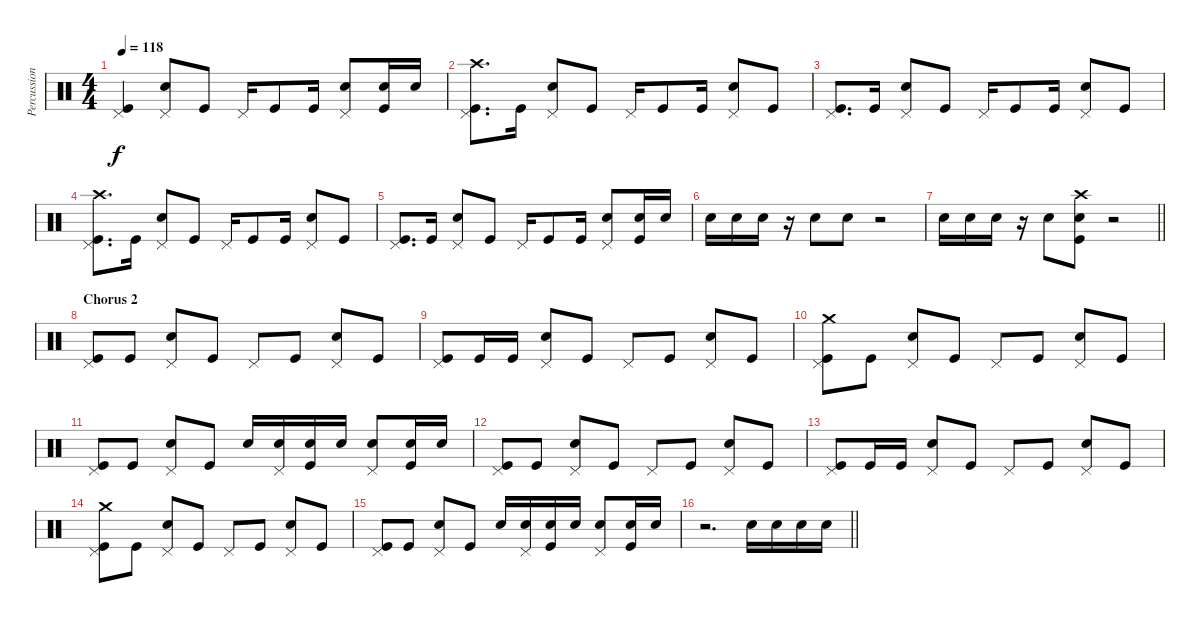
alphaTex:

\track ("Percussion" "Percussion") {instrument percussion}
\staff {score}
\articulation defaults
\ts (4 4)
\tempo 118
\clef neutral
\ks c
("Pedal Hi-Hat (hit)" "Kick (hit)").4{dy f} ("Pedal Hi-Hat (hit)" "Electric Snare (hit)").8 "Kick (hit)".8 "Pedal Hi-Hat (hit)".16 "Kick (hit)".8 "Kick (hit)".16 ("Pedal Hi-Hat (hit)" "Electric Snare (hit)").8 ("Electric Snare (hit)" "Kick (hit)").16 "Electric Snare (hit)".16 |
("Crash high (hit)" "Pedal Hi-Hat (hit)" "Kick (hit)").8{d} "Kick (hit)".16 ("Pedal Hi-Hat (hit)" "Electric Snare (hit)").8 "Kick (hit)".8 "Pedal Hi-Hat (hit)".16 "Kick (hit)".8 "Kick (hit)".16 ("Pedal Hi-Hat (hit)" "Electric Snare (hit)").8 "Kick (hit)".8 |
("Pedal Hi-Hat (hit)" "Kick (hit)").8{d} "Kick (hit)".16 ("Pedal Hi-Hat (hit)" "Electric Snare (hit)").8 "Kick (hit)".8 "Pedal Hi-Hat (hit)".16 "Kick (hit)".8 "Kick (hit)".16 ("Pedal Hi-Hat (hit)" "Electric Snare (hit)").8 "Kick (hit)".8 |
("Crash high (hit)" "Pedal Hi-Hat (hit)" "Kick (hit)").8{d} "Kick (hit)".16 ("Pedal Hi-Hat (hit)" "Electric Snare (hit)").8 "Kick (hit)".8 "Pedal Hi-Hat (hit)".16 "Kick (hit)".8 "Kick (hit)".16 ("Pedal Hi-Hat (hit)" "Electric Snare (hit)").8 "Kick (hit)".8 |
("Pedal Hi-Hat (hit)" "Kick (hit)").8{d} "Kick (hit)".16 ("Pedal Hi-Hat (hit)" "Electric Snare (hit)").8 "Kick (hit)".8 "Pedal Hi-Hat (hit)".16 "Kick (hit)".8 "Kick (hit)".16 ("Pedal Hi-Hat (hit)" "Electric Snare (hit)").8 ("Electric Snare (hit)" "Kick (hit)").16 "Electric Snare (hit)".16 |
"Electric Snare (hit)".16 "Electric Snare (hit)".16 "Electric Snare (hit)".16 r.16 "Electric Snare (hit)".8 "Electric Snare (hit)".8 r.2 |
\barLineRight lightlight "Electric Snare (hit)".16 "Electric Snare (hit)".16 "Electric Snare (hit)".16
r.16 "Electric Snare (hit)".8 ("Kick (hit)" "Crash high (hit)" "Electric Snare (hit)").8 r.2 |
\section ("" "Chorus 2")
("Pedal Hi-Hat (hit)" "Kick (hit)").8 "Kick (hit)".8 ("Pedal Hi-Hat (hit)" "Electric Snare (hit)").8 "Kick (hit)".8 "Pedal Hi-Hat (hit)".8 "Kick (hit)".8 ("Pedal Hi-Hat (hit)" "Electric Snare (hit)").8 "Kick (hit)".8 |
("Pedal Hi-Hat (hit)" "Kick (hit)").8 "Kick (hit)".16 "Kick (hit)".16 ("Pedal Hi-Hat (hit)" "Electric Snare (hit)").8 "Kick (hit)".8 "Pedal Hi-Hat (hit)".8 "Kick (hit)".8 ("Pedal Hi-Hat (hit)" "Electric Snare (hit)").8 "Kick (hit)".8 |
("Crash medium (hit)" "Pedal Hi-Hat (hit)" "Kick (hit)").8 "Kick (hit)".8 ("Pedal Hi-Hat (hit)" "Electric Snare (hit)").8 "Kick (hit)".8 "Pedal Hi-Hat (hit)".8 "Kick (hit)".8 ("Pedal Hi-Hat (hit)" "Electric Snare (hit)").8 "Kick (hit)".8 |
("Pedal Hi-Hat (hit)" "Kick (hit)").8 "Kick (hit)".8 ("Pedal Hi-Hat (hit)" "Electric Snare (hit)").8 "Kick (hit)".8 "Electric Snare (hit)".16 ("Pedal Hi-Hat (hit)" "Electric Snare (hit)").16 ("Electric Snare (hit)" "Kick (hit)").16 "Electric Snare (hit)".16 ("Pedal Hi-Hat (hit)" "Electric Snare (hit)").8 ("Electric Snare (hit)" "Kick (hit)").16 "Electric Snare (hit)".16 |
("Pedal Hi-Hat (hit)" "Kick (hit)").8 "Kick (hit)".8 ("Pedal Hi-Hat (hit)" "Electric Snare (hit)").8 "Kick (hit)".8 "Pedal Hi-Hat (hit)".8 "Kick (hit)".8 ("Pedal Hi-Hat (hit)" "Electric Snare (hit)").8 "Kick (hit)".8 |
("Pedal Hi-Hat (hit)" "Kick (hit)").8 "Kick (hit)".16 "Kick (hit)".16 ("Pedal Hi-Hat (hit)" "Electric Snare (hit)").8 "Kick (hit)".8 "Pedal Hi-Hat (hit)".8 "Kick (hit)".8 ("Pedal Hi-Hat (hit)" "Electric Snare (hit)").8 "Kick (hit)".8 |
("Crash medium (hit)" "Pedal Hi-Hat (hit)" "Kick (hit)").8 "Kick (hit)".8 ("Pedal Hi-Hat (hit)" "Electric Snare (hit)").8 "Kick (hit)".8 "Pedal Hi-Hat (hit)".8 "Kick (hit)".8 ("Pedal Hi-Hat (hit)" "Electric Snare (hit)").8 "Kick (hit)".8 |
("Pedal Hi-Hat (hit)" "Kick (hit)").8 "Kick (hit)".8 ("Pedal Hi-Hat (hit)" "Electric Snare (hit)").8 "Kick (hit)".8 "Electric Snare (hit)".16 ("Pedal Hi-Hat (hit)" "Electric Snare (hit)").16 ("Electric Snare (hit)" "Kick (hit)").16 "Electric Snare (hit)".16 ("Pedal Hi-Hat (hit)" "Electric Snare (hit)").8 ("Electric Snare (hit)" "Kick (hit)").16 "Electric Snare (hit)".16 |
\barLineRight lightlight
r.2{d} "Electric Snare (hit)".16 "Electric Snare (hit)".16 "Electric Snare (hit)".16 "Electric Snare (hit)".16
